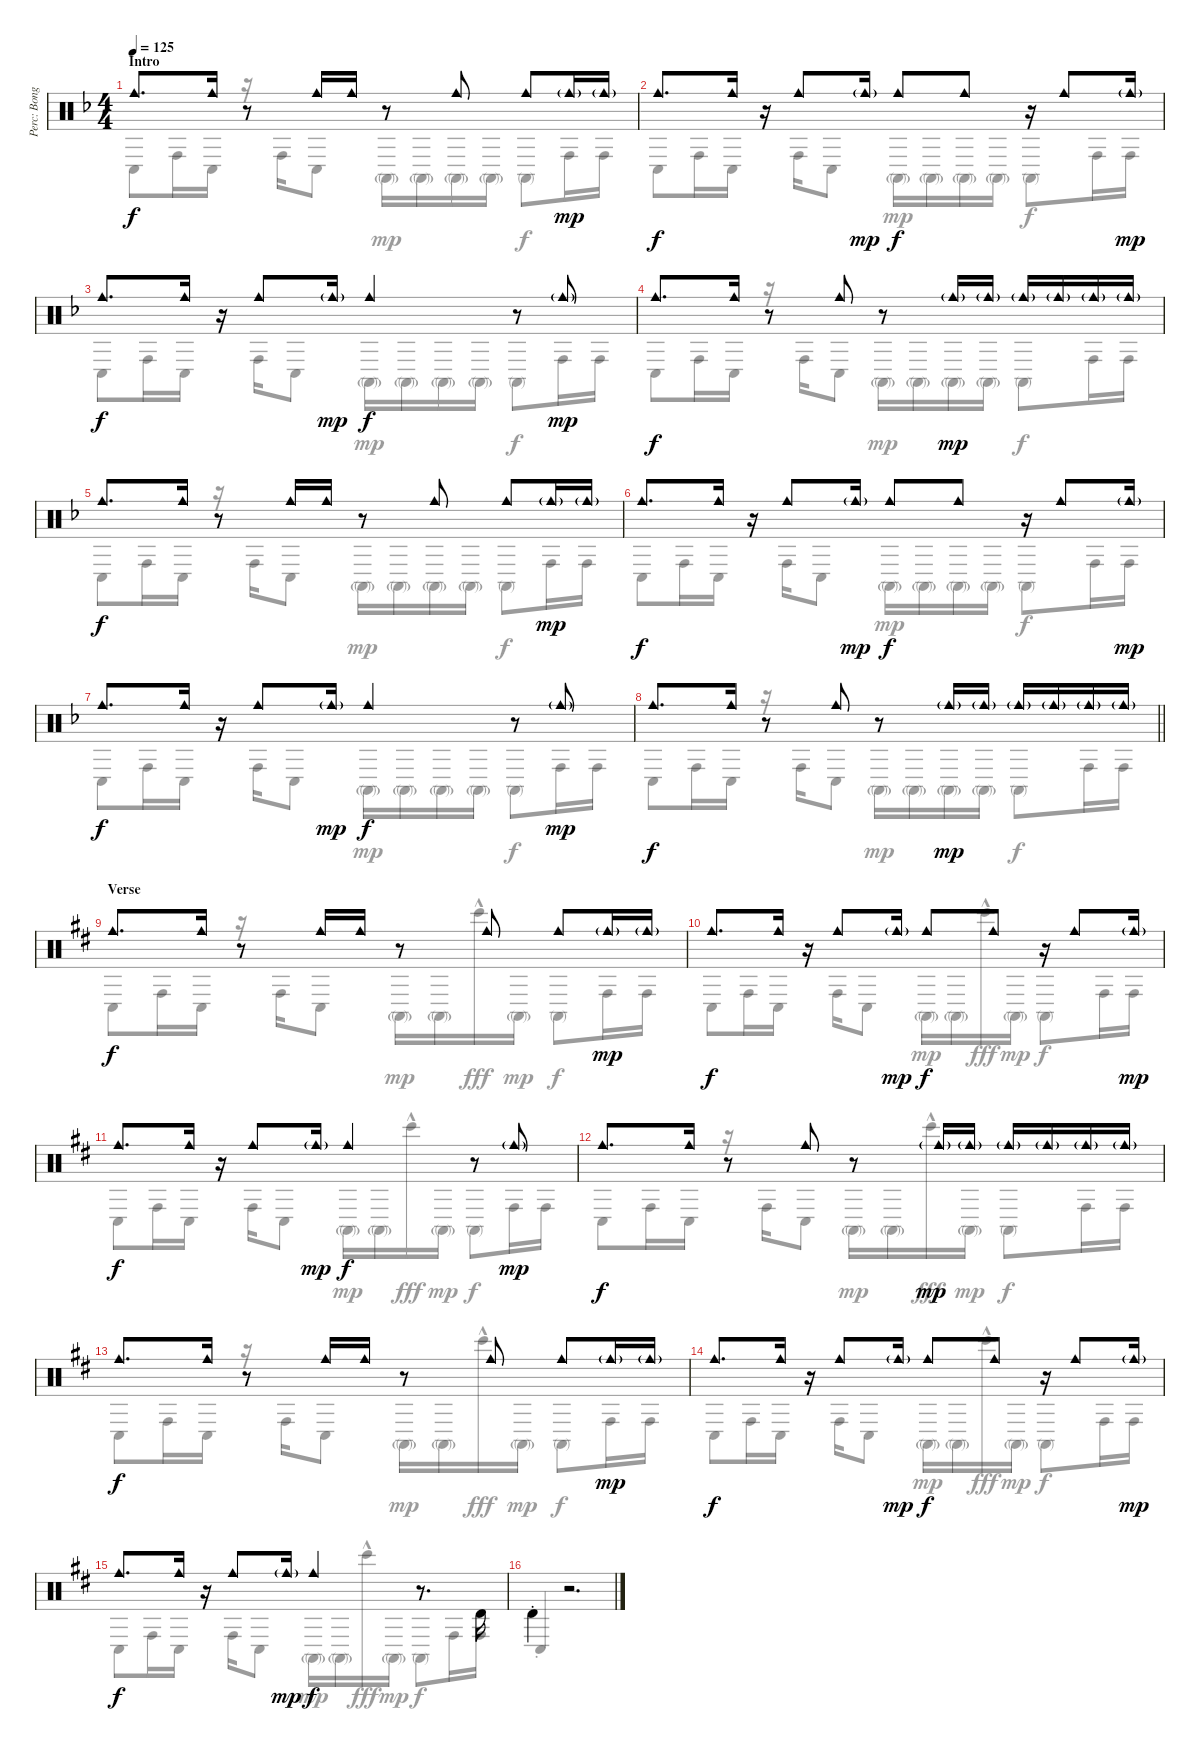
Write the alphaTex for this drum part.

\track ("Perc: Bongos + Cowbell + Triangle" "Perc: Bong") {instrument percussion}
\staff {score}
\articulation defaults
\voice
\ts (4 4)
\section ("" "Intro")
\tempo 125
\clef neutral
\ks dminor "Cowbell medium (hit)".8{d dy f} "Cowbell medium (hit)".16
r.8 "Cowbell medium (hit)".16 "Cowbell medium (hit)".16 r.8 "Cowbell medium (hit)".8 "Cowbell medium (hit)".8 "Cowbell medium (hit)"{g}.16{dy mp} "Cowbell medium (hit)"{g}.16 |
"Cowbell medium (hit)".8{d dy f} "Cowbell medium (hit)".16 r.16 "Cowbell medium (hit)".8 "Cowbell medium (hit)"{g}.16{dy mp} "Cowbell medium (hit)".8{dy f} "Cowbell medium (hit)".8 r.16 "Cowbell medium (hit)".8 "Cowbell medium (hit)"{g}.16{dy mp} |
"Cowbell medium (hit)".8{d dy f} "Cowbell medium (hit)".16 r.16 "Cowbell medium (hit)".8 "Cowbell medium (hit)"{g}.16{dy mp} "Cowbell medium (hit)".4{dy f} r.8 "Cowbell medium (hit)"{g}.8{dy mp} |
"Cowbell medium (hit)".8{d dy f} "Cowbell medium (hit)".16 r.8 "Cowbell medium (hit)".8 r.8 "Cowbell medium (hit)"{g}.16{dy mp} "Cowbell medium (hit)"{g}.16 "Cowbell medium (hit)"{g}.16 "Cowbell medium (hit)"{g}.16 "Cowbell medium (hit)"{g}.16 "Cowbell medium (hit)"{g}.16 |
"Cowbell medium (hit)".8{d dy f} "Cowbell medium (hit)".16 r.8 "Cowbell medium (hit)".16 "Cowbell medium (hit)".16 r.8 "Cowbell medium (hit)".8 "Cowbell medium (hit)".8 "Cowbell medium (hit)"{g}.16{dy mp} "Cowbell medium (hit)"{g}.16 |
"Cowbell medium (hit)".8{d dy f} "Cowbell medium (hit)".16 r.16 "Cowbell medium (hit)".8 "Cowbell medium (hit)"{g}.16{dy mp} "Cowbell medium (hit)".8{dy f} "Cowbell medium (hit)".8 r.16 "Cowbell medium (hit)".8 "Cowbell medium (hit)"{g}.16{dy mp} |
"Cowbell medium (hit)".8{d dy f} "Cowbell medium (hit)".16 r.16 "Cowbell medium (hit)".8 "Cowbell medium (hit)"{g}.16{dy mp} "Cowbell medium (hit)".4{dy f} r.8 "Cowbell medium (hit)"{g}.8{dy mp} |
\barLineRight lightlight "Cowbell medium (hit)".8{d dy f} "Cowbell medium (hit)".16
r.8 "Cowbell medium (hit)".8 r.8 "Cowbell medium (hit)"{g}.16{dy mp} "Cowbell medium (hit)"{g}.16 "Cowbell medium (hit)"{g}.16 "Cowbell medium (hit)"{g}.16 "Cowbell medium (hit)"{g}.16 "Cowbell medium (hit)"{g}.16 |
\section ("" "Verse")
\ks bminor "Cowbell medium (hit)".8{d dy f} "Cowbell medium (hit)".16
r.8 "Cowbell medium (hit)".16 "Cowbell medium (hit)".16 r.8 "Cowbell medium (hit)".8 "Cowbell medium (hit)".8 "Cowbell medium (hit)"{g}.16{dy mp} "Cowbell medium (hit)"{g}.16 |
"Cowbell medium (hit)".8{d dy f} "Cowbell medium (hit)".16 r.16 "Cowbell medium (hit)".8 "Cowbell medium (hit)"{g}.16{dy mp} "Cowbell medium (hit)".8{dy f} "Cowbell medium (hit)".8 r.16 "Cowbell medium (hit)".8 "Cowbell medium (hit)"{g}.16{dy mp} |
"Cowbell medium (hit)".8{d dy f} "Cowbell medium (hit)".16 r.16 "Cowbell medium (hit)".8 "Cowbell medium (hit)"{g}.16{dy mp} "Cowbell medium (hit)".4{dy f} r.8 "Cowbell medium (hit)"{g}.8{dy mp} |
"Cowbell medium (hit)".8{d dy f} "Cowbell medium (hit)".16 r.8 "Cowbell medium (hit)".8 r.8 "Cowbell medium (hit)"{g}.16{dy mp} "Cowbell medium (hit)"{g}.16 "Cowbell medium (hit)"{g}.16 "Cowbell medium (hit)"{g}.16 "Cowbell medium (hit)"{g}.16 "Cowbell medium (hit)"{g}.16 |
"Cowbell medium (hit)".8{d dy f} "Cowbell medium (hit)".16 r.8 "Cowbell medium (hit)".16 "Cowbell medium (hit)".16 r.8 "Cowbell medium (hit)".8 "Cowbell medium (hit)".8 "Cowbell medium (hit)"{g}.16{dy mp} "Cowbell medium (hit)"{g}.16 |
"Cowbell medium (hit)".8{d dy f} "Cowbell medium (hit)".16 r.16 "Cowbell medium (hit)".8 "Cowbell medium (hit)"{g}.16{dy mp} "Cowbell medium (hit)".8{dy f} "Cowbell medium (hit)".8 r.16 "Cowbell medium (hit)".8 "Cowbell medium (hit)"{g}.16{dy mp} |
"Cowbell medium (hit)".8{d dy f} "Cowbell medium (hit)".16 r.16 "Cowbell medium (hit)".8 "Cowbell medium (hit)"{g}.16{dy mp} "Cowbell medium (hit)".4{dy f} r.8{d} "Timbale high (hit)".16{beam Down} |
"Timbale high (hit)"{st}.4{beam Down} r.2{d}
\voice
\clef neutral
\ottava regular
\simile none
\ks dminor "Conga low (hit)".8{dy f} "Conga high (hit)".16 "Conga low (hit)".16
r.16 "Conga high (hit)".16 "Conga low (hit)".8 "Conga high (mute)"{g}.16{dy mp} "Conga high (mute)"{g}.16 "Conga high (mute)"{g}.16 "Conga high (mute)"{g}.16 "Conga high (mute)".8{dy f} "Conga high (hit)".16 "Conga high (hit)".16 |
"Conga low (hit)".8 "Conga high (hit)".16 "Conga low (hit)".16 r.16 "Conga high (hit)".16 "Conga low (hit)".8 "Conga high (mute)"{g}.16{dy mp} "Conga high (mute)"{g}.16 "Conga high (mute)"{g}.16 "Conga high (mute)"{g}.16 "Conga high (mute)".8{dy f} "Conga high (hit)".16 "Conga high (hit)".16 |
"Conga low (hit)".8 "Conga high (hit)".16 "Conga low (hit)".16 r.16 "Conga high (hit)".16 "Conga low (hit)".8 "Conga high (mute)"{g}.16{dy mp} "Conga high (mute)"{g}.16 "Conga high (mute)"{g}.16 "Conga high (mute)"{g}.16 "Conga high (mute)".8{dy f} "Conga high (hit)".16 "Conga high (hit)".16 |
"Conga low (hit)".8 "Conga high (hit)".16 "Conga low (hit)".16 r.16 "Conga high (hit)".16 "Conga low (hit)".8 "Conga high (mute)"{g}.16{dy mp} "Conga high (mute)"{g}.16 "Conga high (mute)"{g}.16 "Conga high (mute)"{g}.16 "Conga high (mute)".8{dy f} "Conga high (hit)".16 "Conga high (hit)".16 |
"Conga low (hit)".8 "Conga high (hit)".16 "Conga low (hit)".16 r.16 "Conga high (hit)".16 "Conga low (hit)".8 "Conga high (mute)"{g}.16{dy mp} "Conga high (mute)"{g}.16 "Conga high (mute)"{g}.16 "Conga high (mute)"{g}.16 "Conga high (mute)".8{dy f} "Conga high (hit)".16 "Conga high (hit)".16 |
"Conga low (hit)".8 "Conga high (hit)".16 "Conga low (hit)".16 r.16 "Conga high (hit)".16 "Conga low (hit)".8 "Conga high (mute)"{g}.16{dy mp} "Conga high (mute)"{g}.16 "Conga high (mute)"{g}.16 "Conga high (mute)"{g}.16 "Conga high (mute)".8{dy f} "Conga high (hit)".16 "Conga high (hit)".16 |
"Conga low (hit)".8 "Conga high (hit)".16 "Conga low (hit)".16 r.16 "Conga high (hit)".16 "Conga low (hit)".8 "Conga high (mute)"{g}.16{dy mp} "Conga high (mute)"{g}.16 "Conga high (mute)"{g}.16 "Conga high (mute)"{g}.16 "Conga high (mute)".8{dy f} "Conga high (hit)".16 "Conga high (hit)".16 |
\barLineRight lightlight "Conga low (hit)".8 "Conga high (hit)".16 "Conga low (hit)".16
r.16 "Conga high (hit)".16 "Conga low (hit)".8 "Conga high (mute)"{g}.16{dy mp} "Conga high (mute)"{g}.16 "Conga high (mute)"{g}.16 "Conga high (mute)"{g}.16 "Conga high (mute)".8{dy f} "Conga high (hit)".16 "Conga high (hit)".16 |
\ks bminor "Conga low (hit)".8 "Conga high (hit)".16 "Conga low (hit)".16
r.16 "Conga high (hit)".16 "Conga low (hit)".8 "Conga high (mute)"{g}.16{dy mp} "Conga high (mute)"{g}.16 "Bongo High (hit)"{hac}.16{dy fff} "Conga high (mute)"{g}.16{dy mp} "Conga high (mute)".8{dy f} "Conga high (hit)".16 "Conga high (hit)".16 |
"Conga low (hit)".8 "Conga high (hit)".16 "Conga low (hit)".16 r.16 "Conga high (hit)".16 "Conga low (hit)".8 "Conga high (mute)"{g}.16{dy mp} "Conga high (mute)"{g}.16 "Bongo High (hit)"{hac}.16{dy fff} "Conga high (mute)"{g}.16{dy mp} "Conga high (mute)".8{dy f} "Conga high (hit)".16 "Conga high (hit)".16 |
"Conga low (hit)".8 "Conga high (hit)".16 "Conga low (hit)".16 r.16 "Conga high (hit)".16 "Conga low (hit)".8 "Conga high (mute)"{g}.16{dy mp} "Conga high (mute)"{g}.16 "Bongo High (hit)"{hac}.16{dy fff} "Conga high (mute)"{g}.16{dy mp} "Conga high (mute)".8{dy f} "Conga high (hit)".16 "Conga high (hit)".16 |
"Conga low (hit)".8 "Conga high (hit)".16 "Conga low (hit)".16 r.16 "Conga high (hit)".16 "Conga low (hit)".8 "Conga high (mute)"{g}.16{dy mp} "Conga high (mute)"{g}.16 "Bongo High (hit)"{hac}.16{dy fff} "Conga high (mute)"{g}.16{dy mp} "Conga high (mute)".8{dy f} "Conga high (hit)".16 "Conga high (hit)".16 |
"Conga low (hit)".8 "Conga high (hit)".16 "Conga low (hit)".16 r.16 "Conga high (hit)".16 "Conga low (hit)".8 "Conga high (mute)"{g}.16{dy mp} "Conga high (mute)"{g}.16 "Bongo High (hit)"{hac}.16{dy fff} "Conga high (mute)"{g}.16{dy mp} "Conga high (mute)".8{dy f} "Conga high (hit)".16 "Conga high (hit)".16 |
"Conga low (hit)".8 "Conga high (hit)".16 "Conga low (hit)".16 r.16 "Conga high (hit)".16 "Conga low (hit)".8 "Conga high (mute)"{g}.16{dy mp} "Conga high (mute)"{g}.16 "Bongo High (hit)"{hac}.16{dy fff} "Conga high (mute)"{g}.16{dy mp} "Conga high (mute)".8{dy f} "Conga high (hit)".16 "Conga high (hit)".16 |
"Conga low (hit)".8 "Conga high (hit)".16 "Conga low (hit)".16 r.16 "Conga high (hit)".16 "Conga low (hit)".8 "Conga high (mute)"{g}.16{dy mp} "Conga high (mute)"{g}.16 "Bongo High (hit)"{hac}.16{dy fff} "Conga high (mute)"{g}.16{dy mp} "Conga high (mute)".8{dy f} "Conga high (hit)".16 "Conga high (hit)".16 |
"Conga low (hit)"{st}.4{beam Up} r.2{d}
